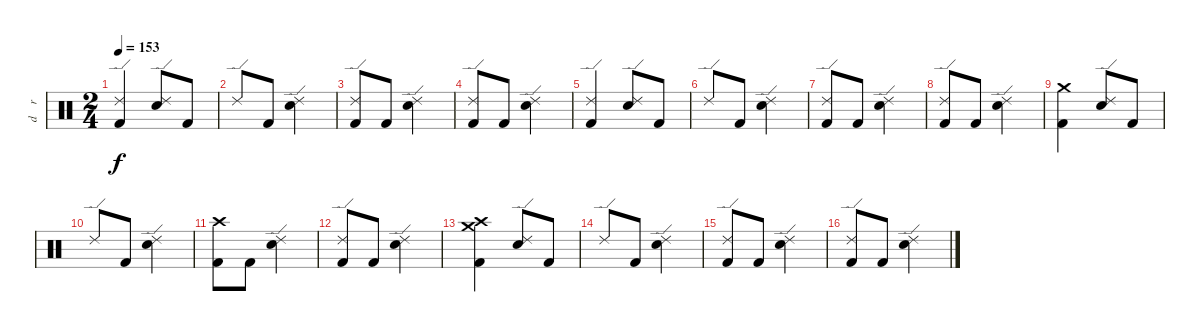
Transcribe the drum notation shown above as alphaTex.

\track ("d    r     u    m    s" "d    r    ") {instrument percussion}
\staff {score}
\articulation defaults
\ts (2 4)
\tempo 153
\clef neutral
\ks c
("Ride (edge) 2" "Kick (hit) 2").4{dy f} ("Ride (edge) 2" "Electric Snare (hit)").8 "Kick (hit) 2".8 |
"Ride (edge) 2".8 "Kick (hit) 2".8 ("Ride (edge) 2" "Electric Snare (hit)").4 |
("Ride (edge) 2" "Kick (hit) 2").8 "Kick (hit) 2".8 ("Ride (edge) 2" "Electric Snare (hit)").4 |
("Ride (edge) 2" "Kick (hit) 2").8 "Kick (hit) 2".8 ("Ride (edge) 2" "Electric Snare (hit)").4 |
("Ride (edge) 2" "Kick (hit) 2").4 ("Ride (edge) 2" "Electric Snare (hit)").8 "Kick (hit) 2".8 |
"Ride (edge) 2".8 "Kick (hit) 2".8 ("Ride (edge) 2" "Electric Snare (hit)").4 |
("Ride (edge) 2" "Kick (hit) 2").8 "Kick (hit) 2".8 ("Ride (edge) 2" "Electric Snare (hit)").4 |
("Ride (edge) 2" "Kick (hit) 2").8 "Kick (hit) 2".8 ("Ride (edge) 2" "Electric Snare (hit)").4 |
("Crash medium (hit)" "Kick (hit) 2").4 ("Ride (edge) 2" "Electric Snare (hit)").8 "Kick (hit) 2".8 |
"Ride (edge) 2".8 "Kick (hit) 2".8 ("Ride (edge) 2" "Electric Snare (hit)").4 |
("Crash high (hit)" "Kick (hit) 2").8 "Kick (hit) 2".8 ("Ride (edge) 2" "Electric Snare (hit)").4 |
("Ride (edge) 2" "Kick (hit) 2").8 "Kick (hit) 2".8 ("Ride (edge) 2" "Electric Snare (hit)").4 |
("Crash high (hit)" "Crash medium (hit)" "Kick (hit) 2").4 ("Ride (edge) 2" "Electric Snare (hit)").8 "Kick (hit) 2".8 |
"Ride (edge) 2".8 "Kick (hit) 2".8 ("Ride (edge) 2" "Electric Snare (hit)").4 |
("Ride (edge) 2" "Kick (hit) 2").8 "Kick (hit) 2".8 ("Ride (edge) 2" "Electric Snare (hit)").4 |
("Ride (edge) 2" "Kick (hit) 2").8 "Kick (hit) 2".8 ("Ride (edge) 2" "Electric Snare (hit)").4
